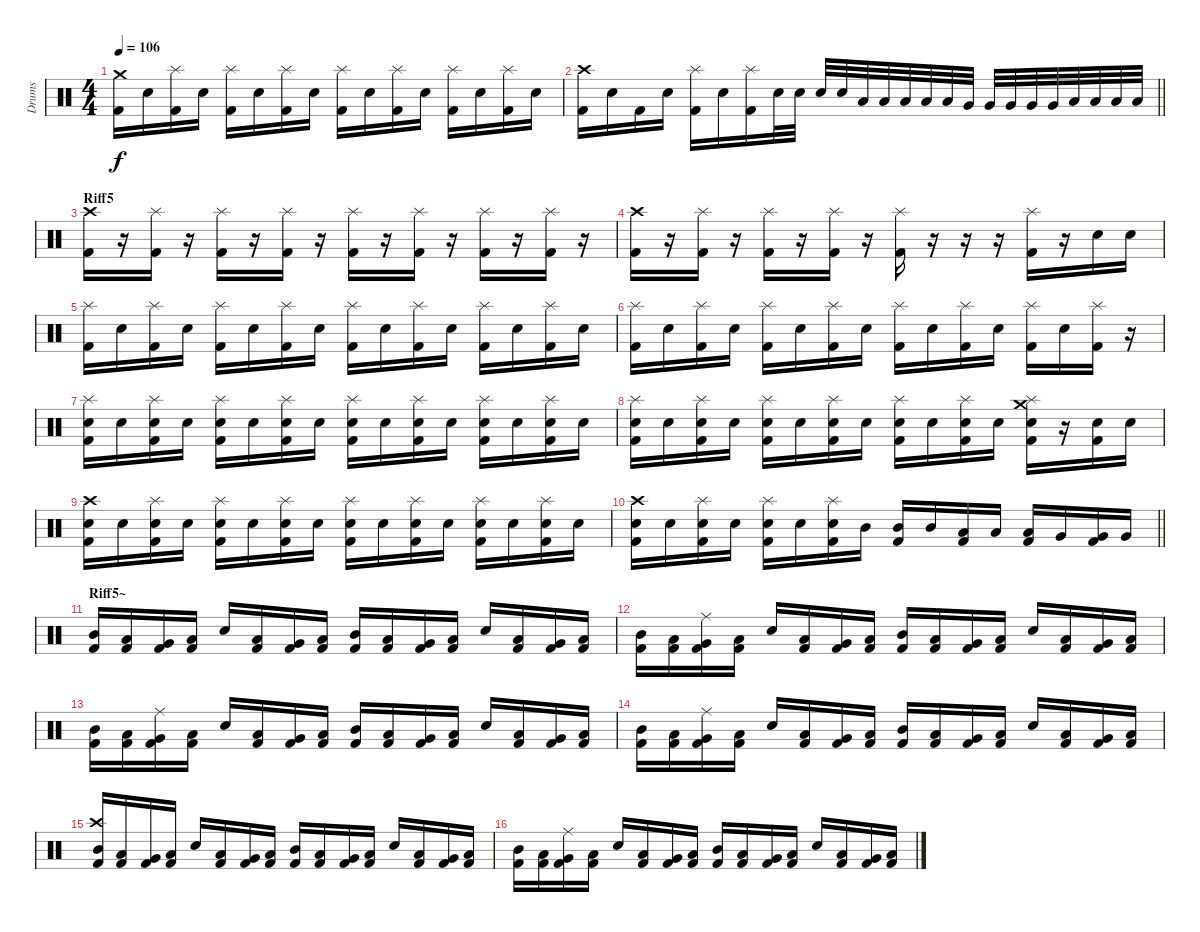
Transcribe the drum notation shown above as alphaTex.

\track ("Drums" "Drums") {instrument percussion}
\staff {score}
\articulation defaults
\ts (4 4)
\tempo 106
\clef neutral
\ks c
("Crash medium (hit)" "Kick (hit) 2").16{dy f} "Snare (hit) 2".16 ("Splash (hit)" "Kick (hit) 2").16 "Snare (hit) 2".16 ("Splash (hit)" "Kick (hit) 2").16 "Snare (hit) 2".16 ("Splash (hit)" "Kick (hit) 2").16 "Snare (hit) 2".16 ("Splash (hit)" "Kick (hit) 2").16 "Snare (hit) 2".16 ("Splash (hit)" "Kick (hit) 2").16 "Snare (hit) 2".16 ("Splash (hit)" "Kick (hit) 2").16 "Snare (hit) 2".16 ("Splash (hit)" "Kick (hit) 2").16 "Snare (hit) 2".16 |
\barLineRight lightlight
("Crash high (hit)" "Kick (hit) 2").16 "Snare (hit) 2".16 "Kick (hit) 2".16 "Snare (hit) 2".16 ("Splash (hit)" "Kick (hit) 2").16 "Snare (hit) 2".16 ("Splash (hit)" "Kick (hit) 2").16 "Snare (hit) 2".32 "Snare (hit) 2".32 "Snare (hit) 2".32 "Snare (hit) 2".32 "Low Tom (hit)".32 "Low Tom (hit)".32 "Low Tom (hit)".32 "Low Tom (hit)".32 "Low Tom (hit)".32 "Very Low Tom (hit)".32 "Very Low Tom (hit)".32 "Very Low Tom (hit)".32 "Very Low Tom (hit)".32 "Very Low Tom (hit)".32 "Low Floor Tom (hit)".32 "Low Floor Tom (hit)".32 "Low Floor Tom (hit)".32 "Low Floor Tom (hit)".32 |
\section ("" "Riff5")
("Crash high (hit)" "Kick (hit) 2").16 r.16 ("Splash (hit)" "Kick (hit) 2").16 r.16 ("Splash (hit)" "Kick (hit) 2").16 r.16 ("Splash (hit)" "Kick (hit) 2").16 r.16 ("Splash (hit)" "Kick (hit) 2").16 r.16 ("Splash (hit)" "Kick (hit) 2").16 r.16 ("Splash (hit)" "Kick (hit) 2").16 r.16 ("Splash (hit)" "Kick (hit) 2").16 r.16 |
("Crash high (hit)" "Kick (hit) 2").16 r.16 ("Splash (hit)" "Kick (hit) 2").16 r.16 ("Splash (hit)" "Kick (hit) 2").16 r.16 ("Splash (hit)" "Kick (hit) 2").16 r.16 ("Splash (hit)" "Kick (hit) 2").16 r.16 r.16 r.16 ("Splash (hit)" "Kick (hit) 2").16 r.16 "Snare (hit) 2".16 "Snare (hit) 2".16 |
("Splash (hit)" "Kick (hit) 2").16 "Snare (hit) 2".16 ("Splash (hit)" "Kick (hit) 2").16 "Snare (hit) 2".16 ("Splash (hit)" "Kick (hit) 2").16 "Snare (hit) 2".16 ("Splash (hit)" "Kick (hit) 2").16 "Snare (hit) 2".16 ("Splash (hit)" "Kick (hit) 2").16 "Snare (hit) 2".16 ("Splash (hit)" "Kick (hit) 2").16 "Snare (hit) 2".16 ("Splash (hit)" "Kick (hit) 2").16 "Snare (hit) 2".16 ("Splash (hit)" "Kick (hit) 2").16 "Snare (hit) 2".16 |
("Splash (hit)" "Kick (hit) 2").16 "Snare (hit) 2".16 ("Splash (hit)" "Kick (hit) 2").16 "Snare (hit) 2".16 ("Splash (hit)" "Kick (hit) 2").16 "Snare (hit) 2".16 ("Splash (hit)" "Kick (hit) 2").16 "Snare (hit) 2".16 ("Splash (hit)" "Kick (hit) 2").16 "Snare (hit) 2".16 ("Splash (hit)" "Kick (hit) 2").16 "Snare (hit) 2".16 ("Splash (hit)" "Kick (hit) 2").16 "Snare (hit) 2".16 ("Splash (hit)" "Kick (hit) 2").16 r.16 |
("Snare (hit) 2" "Splash (hit)" "Kick (hit) 2").16 "Snare (hit) 2".16 ("Snare (hit) 2" "Splash (hit)" "Kick (hit) 2").16 "Snare (hit) 2".16 ("Snare (hit) 2" "Splash (hit)" "Kick (hit) 2").16 "Snare (hit) 2".16 ("Snare (hit) 2" "Splash (hit)" "Kick (hit) 2").16 "Snare (hit) 2".16 ("Snare (hit) 2" "Splash (hit)" "Kick (hit) 2").16 "Snare (hit) 2".16 ("Snare (hit) 2" "Splash (hit)" "Kick (hit) 2").16 "Snare (hit) 2".16 ("Snare (hit) 2" "Splash (hit)" "Kick (hit) 2").16 "Snare (hit) 2".16 ("Snare (hit) 2" "Splash (hit)" "Kick (hit) 2").16 "Snare (hit) 2".16 |
("Snare (hit) 2" "Splash (hit)" "Kick (hit) 2").16 "Snare (hit) 2".16 ("Snare (hit) 2" "Splash (hit)" "Kick (hit) 2").16 "Snare (hit) 2".16 ("Snare (hit) 2" "Splash (hit)" "Kick (hit) 2").16 "Snare (hit) 2".16 ("Snare (hit) 2" "Splash (hit)" "Kick (hit) 2").16 "Snare (hit) 2".16 ("Snare (hit) 2" "Splash (hit)" "Kick (hit) 2").16 "Snare (hit) 2".16 ("Snare (hit) 2" "Splash (hit)" "Kick (hit) 2").16 "Snare (hit) 2".16 ("Snare (hit) 2" "Splash (hit)" "Crash medium (hit)" "Kick (hit) 2").16 r.16 ("Snare (hit) 2" "Kick (hit) 2").16 "Snare (hit) 2".16 |
("Snare (hit) 2" "Crash high (hit)" "Kick (hit) 2").16 "Snare (hit) 2".16 ("Snare (hit) 2" "Splash (hit)" "Kick (hit) 2").16 "Snare (hit) 2".16 ("Snare (hit) 2" "Splash (hit)" "Kick (hit) 2").16 "Snare (hit) 2".16 ("Snare (hit) 2" "Splash (hit)" "Kick (hit) 2").16 "Snare (hit) 2".16 ("Snare (hit) 2" "Splash (hit)" "Kick (hit) 2").16 "Snare (hit) 2".16 ("Snare (hit) 2" "Splash (hit)" "Kick (hit) 2").16 "Snare (hit) 2".16 ("Snare (hit) 2" "Splash (hit)" "Kick (hit) 2").16 "Snare (hit) 2".16 ("Snare (hit) 2" "Splash (hit)" "Kick (hit) 2").16 "Snare (hit) 2".16 |
\barLineRight lightlight
("Snare (hit) 2" "Crash high (hit)" "Kick (hit) 2").16 "Snare (hit) 2".16 ("Snare (hit) 2" "Splash (hit)" "Kick (hit) 2").16 "Snare (hit) 2".16 ("Snare (hit) 2" "Splash (hit)" "Kick (hit) 2").16 "Snare (hit) 2".16 ("Snare (hit) 2" "Splash (hit)" "Kick (hit) 2").16 "Mid Tom (hit)".16 ("Mid Tom (hit)" "Kick (hit) 2").16 "Mid Tom (hit)".16 ("Low Tom (hit)" "Kick (hit) 2").16 "Low Tom (hit)".16 ("Low Tom (hit)" "Kick (hit) 2").16 "Very Low Tom (hit)".16 ("Very Low Tom (hit)" "Kick (hit) 2").16 "Very Low Tom (hit)".16 |
\section ("" "Riff5~")
("Mid Tom (hit)" "Kick (hit) 2").16 ("Low Tom (hit)" "Kick (hit) 2").16 ("Very Low Tom (hit)" "Kick (hit) 2").16 ("Low Floor Tom (hit)" "Kick (hit) 2").16 "Snare (hit) 2".16 ("Low Floor Tom (hit)" "Kick (hit) 2").16 ("Very Low Tom (hit)" "Kick (hit) 2").16 ("Low Tom (hit)" "Kick (hit) 2").16 ("Mid Tom (hit)" "Kick (hit) 2").16 ("Low Tom (hit)" "Kick (hit) 2").16 ("Very Low Tom (hit)" "Kick (hit) 2").16 ("Low Floor Tom (hit)" "Kick (hit) 2").16 "Snare (hit) 2".16 ("Low Floor Tom (hit)" "Kick (hit) 2").16 ("Very Low Tom (hit)" "Kick (hit) 2").16 ("Low Tom (hit)" "Kick (hit) 2").16 |
("Mid Tom (hit)" "Kick (hit) 2").16 ("Low Tom (hit)" "Kick (hit) 2").16 ("Ride (middle)" "Very Low Tom (hit)" "Kick (hit) 2").16 ("Low Floor Tom (hit)" "Kick (hit) 2").16 "Snare (hit) 2".16 ("Low Floor Tom (hit)" "Kick (hit) 2").16 ("Very Low Tom (hit)" "Kick (hit) 2").16 ("Low Tom (hit)" "Kick (hit) 2").16 ("Mid Tom (hit)" "Kick (hit) 2").16 ("Low Tom (hit)" "Kick (hit) 2").16 ("Very Low Tom (hit)" "Kick (hit) 2").16 ("Low Floor Tom (hit)" "Kick (hit) 2").16 "Snare (hit) 2".16 ("Low Floor Tom (hit)" "Kick (hit) 2").16 ("Very Low Tom (hit)" "Kick (hit) 2").16 ("Low Tom (hit)" "Kick (hit) 2").16 |
("Mid Tom (hit)" "Kick (hit) 2").16 ("Low Tom (hit)" "Kick (hit) 2").16 ("Ride (middle)" "Very Low Tom (hit)" "Kick (hit) 2").16 ("Low Floor Tom (hit)" "Kick (hit) 2").16 "Snare (hit) 2".16 ("Low Floor Tom (hit)" "Kick (hit) 2").16 ("Very Low Tom (hit)" "Kick (hit) 2").16 ("Low Tom (hit)" "Kick (hit) 2").16 ("Mid Tom (hit)" "Kick (hit) 2").16 ("Low Tom (hit)" "Kick (hit) 2").16 ("Very Low Tom (hit)" "Kick (hit) 2").16 ("Low Floor Tom (hit)" "Kick (hit) 2").16 "Snare (hit) 2".16 ("Low Floor Tom (hit)" "Kick (hit) 2").16 ("Very Low Tom (hit)" "Kick (hit) 2").16 ("Low Tom (hit)" "Kick (hit) 2").16 |
("Mid Tom (hit)" "Kick (hit) 2").16 ("Low Tom (hit)" "Kick (hit) 2").16 ("Ride (middle)" "Very Low Tom (hit)" "Kick (hit) 2").16 ("Low Floor Tom (hit)" "Kick (hit) 2").16 "Snare (hit) 2".16 ("Low Floor Tom (hit)" "Kick (hit) 2").16 ("Very Low Tom (hit)" "Kick (hit) 2").16 ("Low Tom (hit)" "Kick (hit) 2").16 ("Mid Tom (hit)" "Kick (hit) 2").16 ("Low Tom (hit)" "Kick (hit) 2").16 ("Very Low Tom (hit)" "Kick (hit) 2").16 ("Low Floor Tom (hit)" "Kick (hit) 2").16 "Snare (hit) 2".16 ("Low Floor Tom (hit)" "Kick (hit) 2").16 ("Very Low Tom (hit)" "Kick (hit) 2").16 ("Low Tom (hit)" "Kick (hit) 2").16 |
("Crash high (hit)" "Mid Tom (hit)" "Kick (hit) 2").16 ("Low Tom (hit)" "Kick (hit) 2").16 ("Very Low Tom (hit)" "Kick (hit) 2").16 ("Low Floor Tom (hit)" "Kick (hit) 2").16 "Snare (hit) 2".16 ("Low Floor Tom (hit)" "Kick (hit) 2").16 ("Very Low Tom (hit)" "Kick (hit) 2").16 ("Low Tom (hit)" "Kick (hit) 2").16 ("Mid Tom (hit)" "Kick (hit) 2").16 ("Low Tom (hit)" "Kick (hit) 2").16 ("Very Low Tom (hit)" "Kick (hit) 2").16 ("Low Floor Tom (hit)" "Kick (hit) 2").16 "Snare (hit) 2".16 ("Low Floor Tom (hit)" "Kick (hit) 2").16 ("Very Low Tom (hit)" "Kick (hit) 2").16 ("Low Tom (hit)" "Kick (hit) 2").16 |
("Mid Tom (hit)" "Kick (hit) 2").16 ("Low Tom (hit)" "Kick (hit) 2").16 ("Ride (middle)" "Very Low Tom (hit)" "Kick (hit) 2").16 ("Low Floor Tom (hit)" "Kick (hit) 2").16 "Snare (hit) 2".16 ("Low Floor Tom (hit)" "Kick (hit) 2").16 ("Very Low Tom (hit)" "Kick (hit) 2").16 ("Low Tom (hit)" "Kick (hit) 2").16 ("Mid Tom (hit)" "Kick (hit) 2").16 ("Low Tom (hit)" "Kick (hit) 2").16 ("Very Low Tom (hit)" "Kick (hit) 2").16 ("Low Floor Tom (hit)" "Kick (hit) 2").16 "Snare (hit) 2".16 ("Low Floor Tom (hit)" "Kick (hit) 2").16 ("Very Low Tom (hit)" "Kick (hit) 2").16 ("Low Tom (hit)" "Kick (hit) 2").16
